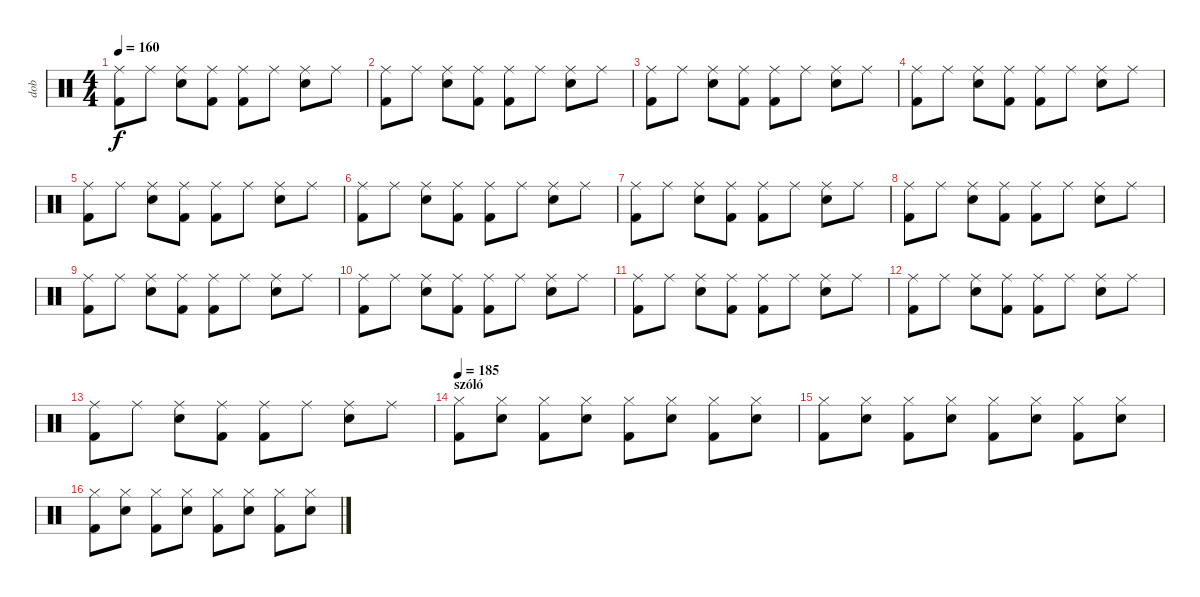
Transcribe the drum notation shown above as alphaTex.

\track ("dob" "dob") {instrument percussion}
\staff {score}
\articulation defaults
\ts (4 4)
\tempo 160
\clef neutral
\ks c
("Ride (middle)" "Kick (hit) 2").8{dy f} "Ride (middle)".8 ("Ride (middle)" "Snare (hit) 2").8 ("Ride (middle)" "Kick (hit) 2").8 ("Ride (middle)" "Kick (hit) 2").8 "Ride (middle)".8 ("Ride (middle)" "Snare (hit) 2").8 "Ride (middle)".8 |
("Ride (middle)" "Kick (hit) 2").8 "Ride (middle)".8 ("Ride (middle)" "Snare (hit) 2").8 ("Ride (middle)" "Kick (hit) 2").8 ("Ride (middle)" "Kick (hit) 2").8 "Ride (middle)".8 ("Ride (middle)" "Snare (hit) 2").8 "Ride (middle)".8 |
("Ride (middle)" "Kick (hit) 2").8 "Ride (middle)".8 ("Ride (middle)" "Snare (hit) 2").8 ("Ride (middle)" "Kick (hit) 2").8 ("Ride (middle)" "Kick (hit) 2").8 "Ride (middle)".8 ("Ride (middle)" "Snare (hit) 2").8 "Ride (middle)".8 |
("Ride (middle)" "Kick (hit) 2").8 "Ride (middle)".8 ("Ride (middle)" "Snare (hit) 2").8 ("Ride (middle)" "Kick (hit) 2").8 ("Ride (middle)" "Kick (hit) 2").8 "Ride (middle)".8 ("Ride (middle)" "Snare (hit) 2").8 "Ride (middle)".8 |
("Ride (middle)" "Kick (hit) 2").8 "Ride (middle)".8 ("Ride (middle)" "Snare (hit) 2").8 ("Ride (middle)" "Kick (hit) 2").8 ("Ride (middle)" "Kick (hit) 2").8 "Ride (middle)".8 ("Ride (middle)" "Snare (hit) 2").8 "Ride (middle)".8 |
("Ride (middle)" "Kick (hit) 2").8 "Ride (middle)".8 ("Ride (middle)" "Snare (hit) 2").8 ("Ride (middle)" "Kick (hit) 2").8 ("Ride (middle)" "Kick (hit) 2").8 "Ride (middle)".8 ("Ride (middle)" "Snare (hit) 2").8 "Ride (middle)".8 |
("Ride (middle)" "Kick (hit) 2").8 "Ride (middle)".8 ("Ride (middle)" "Snare (hit) 2").8 ("Ride (middle)" "Kick (hit) 2").8 ("Ride (middle)" "Kick (hit) 2").8 "Ride (middle)".8 ("Ride (middle)" "Snare (hit) 2").8 "Ride (middle)".8 |
("Ride (middle)" "Kick (hit) 2").8 "Ride (middle)".8 ("Ride (middle)" "Snare (hit) 2").8 ("Ride (middle)" "Kick (hit) 2").8 ("Ride (middle)" "Kick (hit) 2").8 "Ride (middle)".8 ("Ride (middle)" "Snare (hit) 2").8 "Ride (middle)".8 |
("Ride (middle)" "Kick (hit) 2").8 "Ride (middle)".8 ("Ride (middle)" "Snare (hit) 2").8 ("Ride (middle)" "Kick (hit) 2").8 ("Ride (middle)" "Kick (hit) 2").8 "Ride (middle)".8 ("Ride (middle)" "Snare (hit) 2").8 "Ride (middle)".8 |
("Ride (middle)" "Kick (hit) 2").8 "Ride (middle)".8 ("Ride (middle)" "Snare (hit) 2").8 ("Ride (middle)" "Kick (hit) 2").8 ("Ride (middle)" "Kick (hit) 2").8 "Ride (middle)".8 ("Ride (middle)" "Snare (hit) 2").8 "Ride (middle)".8 |
("Ride (middle)" "Kick (hit) 2").8 "Ride (middle)".8 ("Ride (middle)" "Snare (hit) 2").8 ("Ride (middle)" "Kick (hit) 2").8 ("Ride (middle)" "Kick (hit) 2").8 "Ride (middle)".8 ("Ride (middle)" "Snare (hit) 2").8 "Ride (middle)".8 |
("Ride (middle)" "Kick (hit) 2").8 "Ride (middle)".8 ("Ride (middle)" "Snare (hit) 2").8 ("Ride (middle)" "Kick (hit) 2").8 ("Ride (middle)" "Kick (hit) 2").8 "Ride (middle)".8 ("Ride (middle)" "Snare (hit) 2").8 "Ride (middle)".8 |
("Ride (middle)" "Kick (hit) 2").8 "Ride (middle)".8 ("Ride (middle)" "Snare (hit) 2").8 ("Ride (middle)" "Kick (hit) 2").8 ("Ride (middle)" "Kick (hit) 2").8 "Ride (middle)".8 ("Ride (middle)" "Snare (hit) 2").8 "Ride (middle)".8 |
\section ("" "szóló")
\tempo 185
("Hi-Hat (closed)" "Kick (hit) 2").8 ("Hi-Hat (closed)" "Snare (hit) 2").8 ("Hi-Hat (closed)" "Kick (hit) 2").8 ("Hi-Hat (closed)" "Snare (hit) 2").8 ("Hi-Hat (closed)" "Kick (hit) 2").8 ("Hi-Hat (closed)" "Snare (hit) 2").8 ("Hi-Hat (closed)" "Kick (hit) 2").8 ("Hi-Hat (closed)" "Snare (hit) 2").8 |
("Hi-Hat (closed)" "Kick (hit) 2").8 ("Hi-Hat (closed)" "Snare (hit) 2").8 ("Hi-Hat (closed)" "Kick (hit) 2").8 ("Hi-Hat (closed)" "Snare (hit) 2").8 ("Hi-Hat (closed)" "Kick (hit) 2").8 ("Hi-Hat (closed)" "Snare (hit) 2").8 ("Hi-Hat (closed)" "Kick (hit) 2").8 ("Hi-Hat (closed)" "Snare (hit) 2").8 |
("Hi-Hat (closed)" "Kick (hit) 2").8 ("Hi-Hat (closed)" "Snare (hit) 2").8 ("Hi-Hat (closed)" "Kick (hit) 2").8 ("Hi-Hat (closed)" "Snare (hit) 2").8 ("Hi-Hat (closed)" "Kick (hit) 2").8 ("Hi-Hat (closed)" "Snare (hit) 2").8 ("Hi-Hat (closed)" "Kick (hit) 2").8 ("Hi-Hat (closed)" "Snare (hit) 2").8
